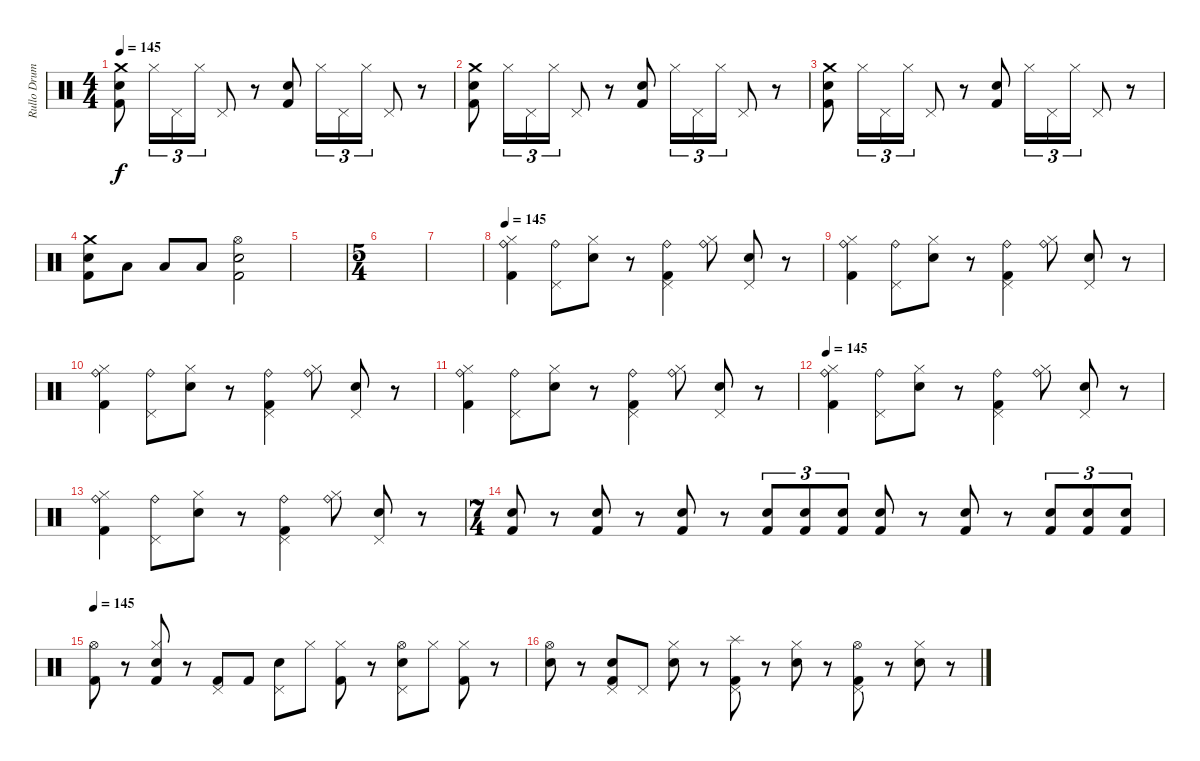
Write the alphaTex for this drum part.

\track ("Rullo Drums" "Rullo Drum") {instrument percussion}
\staff {score}
\articulation defaults
\ts (4 4)
\tempo 145
\clef neutral
\ks c
("Electric Snare (hit)" "Kick (hit) 2" "Crash medium (hit)").8{dy f} "Hi-Hat (closed)".16{tu (3 2)} "Pedal Hi-Hat (hit)".16{tu (3 2)} "Hi-Hat (closed)".16{tu (3 2)} "Pedal Hi-Hat (hit)".8 r.8 ("Kick (hit) 2" "Electric Snare (hit)").8 "Hi-Hat (closed)".16{tu (3 2)} "Pedal Hi-Hat (hit)".16{tu (3 2)} "Hi-Hat (closed)".16{tu (3 2)} "Pedal Hi-Hat (hit)".8 r.8 |
("Electric Snare (hit)" "Kick (hit) 2" "Crash medium (hit)").8 "Hi-Hat (closed)".16{tu (3 2)} "Pedal Hi-Hat (hit)".16{tu (3 2)} "Hi-Hat (closed)".16{tu (3 2)} "Pedal Hi-Hat (hit)".8 r.8 ("Kick (hit) 2" "Electric Snare (hit)").8 "Hi-Hat (closed)".16{tu (3 2)} "Pedal Hi-Hat (hit)".16{tu (3 2)} "Hi-Hat (closed)".16{tu (3 2)} "Pedal Hi-Hat (hit)".8 r.8 |
("Electric Snare (hit)" "Kick (hit) 2" "Crash medium (hit)").8 "Hi-Hat (closed)".16{tu (3 2)} "Pedal Hi-Hat (hit)".16{tu (3 2)} "Hi-Hat (closed)".16{tu (3 2)} "Pedal Hi-Hat (hit)".8 r.8 ("Kick (hit) 2" "Electric Snare (hit)").8 "Hi-Hat (closed)".16{tu (3 2)} "Pedal Hi-Hat (hit)".16{tu (3 2)} "Hi-Hat (closed)".16{tu (3 2)} "Pedal Hi-Hat (hit)".8 r.8 |
("Electric Snare (hit)" "Kick (hit) 2" "Crash medium (hit)").8 "Low Tom (hit)".8 "Low Tom (hit)".8 "Low Tom (hit)".8 ("Snare (hit) 2" "Kick (hit) 2" "Hi-Hat (open)").2 |
|
\ts (5 4)
|
|
\tempo 145
("Ride (bell)" "Hi-Hat (closed)" "Kick (hit) 2").4 ("Ride (bell)" "Pedal Hi-Hat (hit)").8 ("Snare (hit) 2" "Hi-Hat (closed)").8 r.8 ("Ride (bell)" "Pedal Hi-Hat (hit)" "Kick (hit) 2").4 ("Ride (bell)" "Hi-Hat (closed)").8 ("Snare (hit) 2" "Pedal Hi-Hat (hit)").8 r.8 |
("Ride (bell)" "Hi-Hat (closed)" "Kick (hit) 2").4 ("Ride (bell)" "Pedal Hi-Hat (hit)").8 ("Snare (hit) 2" "Hi-Hat (closed)").8 r.8 ("Ride (bell)" "Pedal Hi-Hat (hit)" "Kick (hit) 2").4 ("Ride (bell)" "Hi-Hat (closed)").8 ("Snare (hit) 2" "Pedal Hi-Hat (hit)").8 r.8 |
("Ride (bell)" "Hi-Hat (closed)" "Kick (hit) 2").4 ("Ride (bell)" "Pedal Hi-Hat (hit)").8 ("Snare (hit) 2" "Hi-Hat (closed)").8 r.8 ("Ride (bell)" "Pedal Hi-Hat (hit)" "Kick (hit) 2").4 ("Ride (bell)" "Hi-Hat (closed)").8 ("Snare (hit) 2" "Pedal Hi-Hat (hit)").8 r.8 |
("Ride (bell)" "Hi-Hat (closed)" "Kick (hit) 2").4 ("Ride (bell)" "Pedal Hi-Hat (hit)").8 ("Snare (hit) 2" "Hi-Hat (closed)").8 r.8 ("Ride (bell)" "Pedal Hi-Hat (hit)" "Kick (hit) 2").4 ("Ride (bell)" "Hi-Hat (closed)").8 ("Snare (hit) 2" "Pedal Hi-Hat (hit)").8 r.8 |
\tempo 145
("Ride (bell)" "Hi-Hat (closed)" "Kick (hit) 2").4 ("Ride (bell)" "Pedal Hi-Hat (hit)").8 ("Snare (hit) 2" "Hi-Hat (closed)").8 r.8 ("Ride (bell)" "Pedal Hi-Hat (hit)" "Kick (hit) 2").4 ("Ride (bell)" "Hi-Hat (closed)").8 ("Snare (hit) 2" "Pedal Hi-Hat (hit)").8 r.8 |
("Ride (bell)" "Hi-Hat (closed)" "Kick (hit) 2").4 ("Ride (bell)" "Pedal Hi-Hat (hit)").8 ("Snare (hit) 2" "Hi-Hat (closed)").8 r.8 ("Ride (bell)" "Pedal Hi-Hat (hit)" "Kick (hit) 2").4 ("Ride (bell)" "Hi-Hat (closed)").8 ("Snare (hit) 2" "Pedal Hi-Hat (hit)").8 r.8 |
\ts (7 4)
("Kick (hit) 2" "Snare (hit) 2").8 r.8 ("Kick (hit) 2" "Snare (hit) 2").8 r.8 ("Kick (hit) 2" "Snare (hit) 2").8 r.8 ("Kick (hit) 2" "Snare (hit) 2").8{tu (3 2)} ("Kick (hit) 2" "Snare (hit) 2").8{tu (3 2)} ("Kick (hit) 2" "Snare (hit) 2").8{tu (3 2)} ("Kick (hit) 2" "Snare (hit) 2").8 r.8 ("Kick (hit) 2" "Snare (hit) 2").8 r.8 ("Kick (hit) 2" "Snare (hit) 2").8{tu (3 2)} ("Kick (hit) 2" "Snare (hit) 2").8{tu (3 2)} ("Kick (hit) 2" "Snare (hit) 2").8{tu (3 2)} |
\tempo 145
("Kick (hit) 2" "Hi-Hat (open)").8 r.8 ("Snare (hit) 2" "Hi-Hat (closed)" "Kick (hit) 2").8 r.8 ("Kick (hit) 2" "Pedal Hi-Hat (hit)").8 "Kick (hit) 2".8 ("Snare (hit) 2" "Pedal Hi-Hat (hit)").8 "Hi-Hat (closed)".8 ("Kick (hit) 2" "Hi-Hat (closed)").8 r.8 ("Snare (hit) 2" "Pedal Hi-Hat (hit)" "Hi-Hat (open)").8 "Hi-Hat (closed)".8 ("Kick (hit) 2" "Hi-Hat (closed)").8 r.8 |
("Snare (hit) 2" "Hi-Hat (open)").8 r.8 ("Snare (hit) 2" "Kick (hit) 2" "Pedal Hi-Hat (hit)").8 "Pedal Hi-Hat (hit)".8 ("Snare (hit) 2" "Hi-Hat (closed)").8 r.8 ("Kick (hit) 2" "Pedal Hi-Hat (hit)" "Splash (hit)").8 r.8 ("Snare (hit) 2" "Hi-Hat (closed)").8 r.8 ("Kick (hit) 2" "Pedal Hi-Hat (hit)" "Hi-Hat (open)").8 r.8 ("Snare (hit) 2" "Hi-Hat (closed)").8 r.8
